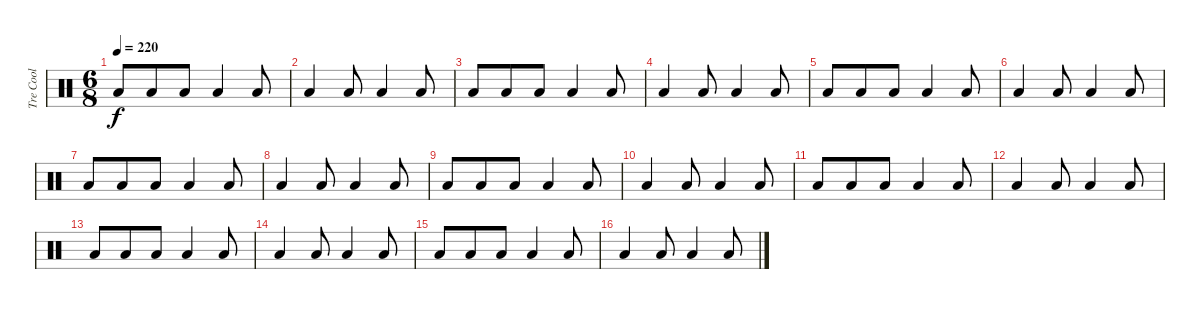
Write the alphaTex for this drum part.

\track ("Tre Cool" "Tre Cool") {instrument percussion}
\staff {score}
\articulation defaults
\ts (6 8)
\tempo 220
\clef neutral
\ks c "Low Floor Tom (hit)".8{dy f} "Low Floor Tom (hit)".8 "Low Floor Tom (hit)".8 "Low Tom (hit)".4 "Low Tom (hit)".8
|
"Low Floor Tom (hit)".4 "Low Floor Tom (hit)".8 "Low Tom (hit)".4 "Low Tom (hit)".8 |
"Low Floor Tom (hit)".8 "Low Floor Tom (hit)".8 "Low Floor Tom (hit)".8 "Low Tom (hit)".4 "Low Tom (hit)".8 |
"Low Floor Tom (hit)".4 "Low Floor Tom (hit)".8 "Low Tom (hit)".4 "Low Tom (hit)".8 |
"Low Floor Tom (hit)".8 "Low Floor Tom (hit)".8 "Low Floor Tom (hit)".8 "Low Tom (hit)".4 "Low Tom (hit)".8 |
"Low Floor Tom (hit)".4 "Low Floor Tom (hit)".8 "Low Tom (hit)".4 "Low Tom (hit)".8 |
"Low Floor Tom (hit)".8 "Low Floor Tom (hit)".8 "Low Floor Tom (hit)".8 "Low Tom (hit)".4 "Low Tom (hit)".8 |
"Low Floor Tom (hit)".4 "Low Floor Tom (hit)".8 "Low Tom (hit)".4 "Low Tom (hit)".8 |
"Low Floor Tom (hit)".8 "Low Floor Tom (hit)".8 "Low Floor Tom (hit)".8 "Low Tom (hit)".4 "Low Tom (hit)".8 |
"Low Floor Tom (hit)".4 "Low Floor Tom (hit)".8 "Low Tom (hit)".4 "Low Tom (hit)".8 |
"Low Floor Tom (hit)".8 "Low Floor Tom (hit)".8 "Low Floor Tom (hit)".8 "Low Tom (hit)".4 "Low Tom (hit)".8 |
"Low Floor Tom (hit)".4 "Low Floor Tom (hit)".8 "Low Tom (hit)".4 "Low Tom (hit)".8 |
"Low Floor Tom (hit)".8 "Low Floor Tom (hit)".8 "Low Floor Tom (hit)".8 "Low Tom (hit)".4 "Low Tom (hit)".8 |
"Low Floor Tom (hit)".4 "Low Floor Tom (hit)".8 "Low Tom (hit)".4 "Low Tom (hit)".8 |
"Low Floor Tom (hit)".8 "Low Floor Tom (hit)".8 "Low Floor Tom (hit)".8 "Low Tom (hit)".4 "Low Tom (hit)".8 |
"Low Floor Tom (hit)".4 "Low Floor Tom (hit)".8 "Low Tom (hit)".4 "Low Tom (hit)".8
